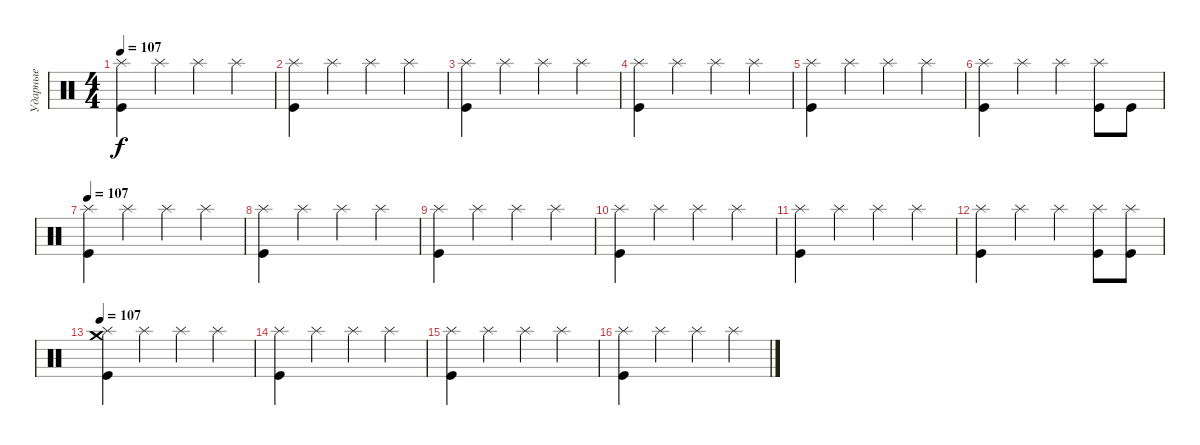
\track ("Ударные" "Ударные") {instrument percussion}
\staff {score}
\articulation defaults
\ts (4 4)
\tempo 107
\clef neutral
\ks c
("Splash (hit)" "Kick (hit)").4{dy f} "Splash (hit)".4 "Splash (hit)".4 "Splash (hit)".4 |
("Splash (hit)" "Kick (hit)").4 "Splash (hit)".4 "Splash (hit)".4 "Splash (hit)".4 |
("Splash (hit)" "Kick (hit)").4 "Splash (hit)".4 "Splash (hit)".4 "Splash (hit)".4 |
("Splash (hit)" "Kick (hit)").4 "Splash (hit)".4 "Splash (hit)".4 "Splash (hit)".4 |
("Splash (hit)" "Kick (hit)").4 "Splash (hit)".4 "Splash (hit)".4 "Splash (hit)".4 |
("Splash (hit)" "Kick (hit)").4 "Splash (hit)".4 "Splash (hit)".4 ("Splash (hit)" "Kick (hit)").8 "Kick (hit)".8 |
\tempo 107
("Splash (hit)" "Kick (hit)").4 "Splash (hit)".4 "Splash (hit)".4 "Splash (hit)".4 |
("Splash (hit)" "Kick (hit)").4 "Splash (hit)".4 "Splash (hit)".4 "Splash (hit)".4 |
("Splash (hit)" "Kick (hit)").4 "Splash (hit)".4 "Splash (hit)".4 "Splash (hit)".4 |
("Splash (hit)" "Kick (hit)").4 "Splash (hit)".4 "Splash (hit)".4 "Splash (hit)".4 |
("Splash (hit)" "Kick (hit)").4 "Splash (hit)".4 "Splash (hit)".4 "Splash (hit)".4 |
("Splash (hit)" "Kick (hit)").4 "Splash (hit)".4 "Splash (hit)".4 ("Splash (hit)" "Kick (hit)").8 ("Splash (hit)" "Kick (hit)").8 |
\tempo 107
("Splash (hit)" "Crash medium (hit)" "Kick (hit)").4 "Splash (hit)".4 "Splash (hit)".4 "Splash (hit)".4 |
("Splash (hit)" "Kick (hit)").4 "Splash (hit)".4 "Splash (hit)".4 "Splash (hit)".4 |
("Splash (hit)" "Kick (hit)").4 "Splash (hit)".4 "Splash (hit)".4 "Splash (hit)".4 |
("Splash (hit)" "Kick (hit)").4 "Splash (hit)".4 "Splash (hit)".4 "Splash (hit)".4
